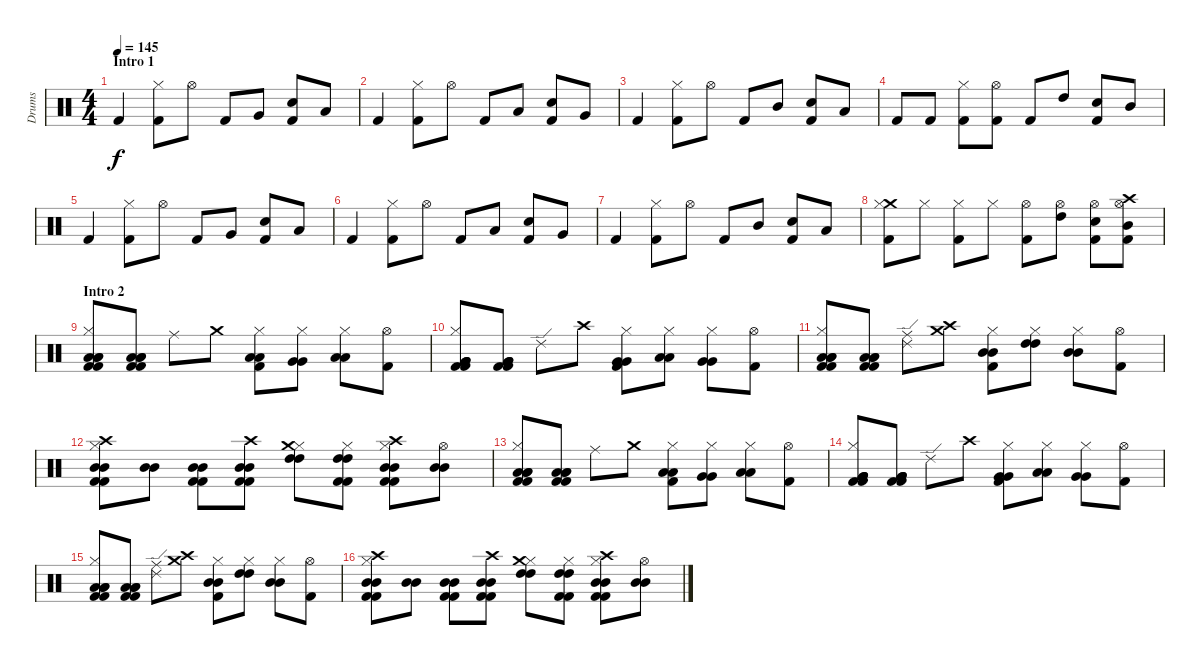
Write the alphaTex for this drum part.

\track ("Drums" "Drums") {instrument percussion}
\staff {score}
\articulation defaults
\ts (4 4)
\section ("" "Intro 1")
\tempo 145
\clef neutral
\ks c "Kick (hit) 2".4{dy f}
("Hi-Hat (closed)" "Kick (hit) 2").8 "Hi-Hat (open)".8 "Kick (hit) 2".8 "Very Low Tom (hit)".8 ("Snare (hit) 2" "Kick (hit) 2").8 "Low Floor Tom (hit)".8 |
"Kick (hit) 2".4 ("Hi-Hat (closed)" "Kick (hit) 2").8 "Hi-Hat (open)".8 "Kick (hit) 2".8 "Low Tom (hit)".8 ("Snare (hit) 2" "Kick (hit) 2").8 "Very Low Tom (hit)".8 |
"Kick (hit) 2".4 ("Hi-Hat (closed)" "Kick (hit) 2").8 "Hi-Hat (open)".8 "Kick (hit) 2".8 "Mid Tom (hit)".8 ("Snare (hit) 2" "Kick (hit) 2").8 "Low Tom (hit)".8 |
"Kick (hit) 2".8 "Kick (hit) 2".8 ("Hi-Hat (closed)" "Kick (hit) 2").8 ("Hi-Hat (open)" "Kick (hit) 2").8 "Kick (hit) 2".8 "High Tom (hit)".8 ("Snare (hit) 2" "Kick (hit) 2").8 "Mid Tom (hit)".8 |
"Kick (hit) 2".4 ("Hi-Hat (closed)" "Kick (hit) 2").8 "Hi-Hat (open)".8 "Kick (hit) 2".8 "Very Low Tom (hit)".8 ("Snare (hit) 2" "Kick (hit) 2").8 "Low Floor Tom (hit)".8 |
"Kick (hit) 2".4 ("Hi-Hat (closed)" "Kick (hit) 2").8 "Hi-Hat (open)".8 "Kick (hit) 2".8 "Low Tom (hit)".8 ("Snare (hit) 2" "Kick (hit) 2").8 "Very Low Tom (hit)".8 |
"Kick (hit) 2".4 ("Hi-Hat (closed)" "Kick (hit) 2").8 "Hi-Hat (open)".8 "Kick (hit) 2".8 "Mid Tom (hit)".8 ("Snare (hit) 2" "Kick (hit) 2").8 "Low Tom (hit)".8 |
("Crash medium (hit)" "Hi-Hat (closed)" "Kick (hit) 2").8 "Hi-Hat (closed)".8 ("Hi-Hat (closed)" "Kick (hit) 2").8 "Hi-Hat (closed)".8 ("Hi-Hat (open)" "Kick (hit) 2").8 ("Hi-Hat (open)" "High Tom (hit)").8 ("Hi-Hat (open)" "Snare (hit) 2" "Kick (hit) 2").8 ("Crash high (hit)" "Hi-Hat (open)" "Mid Tom (hit)" "Kick (hit) 2").8 |
\section ("" "Intro 2")
("Kick (hit) 2" "Hi-Hat (closed)" "Low Floor Tom (hit)" "Low Floor Tom (hit)" "Low Floor Tom (hit)" "Kick (hit) 2").8 ("Kick (hit) 2" "Low Floor Tom (hit)" "Low Floor Tom (hit)" "Low Floor Tom (hit)" "Kick (hit) 2").8 "Ride (middle)".8 "Crash medium (hit)".8 ("Hi-Hat (closed)" "Low Floor Tom (hit)" "Low Floor Tom (hit)" "Kick (hit) 2").8 ("Hi-Hat (closed)" "Very Low Tom (hit)" "Very Low Tom (hit)").8 ("Hi-Hat (closed)" "Low Floor Tom (hit)" "Low Floor Tom (hit)").8 ("Hi-Hat (open)" "Kick (hit) 2").8 |
("Kick (hit) 2" "Hi-Hat (closed)" "Very Low Tom (hit)" "Very Low Tom (hit)" "Very Low Tom (hit)" "Kick (hit) 2").8 ("Kick (hit) 2" "Very Low Tom (hit)" "Very Low Tom (hit)" "Very Low Tom (hit)" "Kick (hit) 2").8 "Ride (edge) 2".8 "Crash high (hit)".8 ("Hi-Hat (closed)" "Very Low Tom (hit)" "Very Low Tom (hit)" "Kick (hit) 2").8 ("Hi-Hat (closed)" "Low Tom (hit)" "Low Tom (hit)").8 ("Hi-Hat (closed)" "Very Low Tom (hit)" "Very Low Tom (hit)").8 ("Hi-Hat (open)" "Kick (hit) 2").8 |
("Kick (hit) 2" "Hi-Hat (closed)" "Low Tom (hit)" "Low Tom (hit)" "Low Tom (hit)" "Kick (hit) 2").8 ("Kick (hit) 2" "Low Tom (hit)" "Low Tom (hit)" "Low Tom (hit)" "Kick (hit) 2").8 ("Ride (middle)" "Ride (edge) 2").8 ("Crash medium (hit)" "Crash high (hit)").8 ("Hi-Hat (closed)" "Mid Tom (hit)" "Mid Tom (hit)" "Kick (hit) 2").8 ("Hi-Hat (closed)" "High Tom (hit)" "High Tom (hit)").8 ("Hi-Hat (closed)" "Mid Tom (hit)" "Mid Tom (hit)").8 ("Hi-Hat (open)" "Kick (hit) 2").8 |
("Mid Tom (hit)" "Hi-Hat (closed)" "Crash high (hit)" "Kick (hit) 2" "Mid Tom (hit)" "Kick (hit) 2").8 ("Mid Tom (hit)" "Mid Tom (hit)").8 ("Mid Tom (hit)" "Kick (hit) 2" "Mid Tom (hit)" "Kick (hit) 2").8 ("Mid Tom (hit)" "Crash high (hit)" "Kick (hit) 2" "Mid Tom (hit)" "Kick (hit) 2").8 ("High Tom (hit)" "Hi-Hat (closed)" "Crash medium (hit)" "High Tom (hit)").8 ("High Tom (hit)" "Hi-Hat (closed)" "Kick (hit) 2" "High Tom (hit)" "Kick (hit) 2").8 ("Mid Tom (hit)" "Hi-Hat (closed)" "Crash high (hit)" "Kick (hit) 2" "Mid Tom (hit)" "Kick (hit) 2").8 ("Mid Tom (hit)" "Hi-Hat (open)" "Mid Tom (hit)").8 |
("Kick (hit) 2" "Hi-Hat (closed)" "Low Floor Tom (hit)" "Low Floor Tom (hit)" "Low Floor Tom (hit)" "Kick (hit) 2").8 ("Kick (hit) 2" "Low Floor Tom (hit)" "Low Floor Tom (hit)" "Low Floor Tom (hit)" "Kick (hit) 2").8 "Ride (middle)".8 "Crash medium (hit)".8 ("Hi-Hat (closed)" "Low Floor Tom (hit)" "Low Floor Tom (hit)" "Kick (hit) 2").8 ("Hi-Hat (closed)" "Very Low Tom (hit)" "Very Low Tom (hit)").8 ("Hi-Hat (closed)" "Low Floor Tom (hit)" "Low Floor Tom (hit)").8 ("Hi-Hat (open)" "Kick (hit) 2").8 |
("Kick (hit) 2" "Hi-Hat (closed)" "Very Low Tom (hit)" "Very Low Tom (hit)" "Very Low Tom (hit)" "Kick (hit) 2").8 ("Kick (hit) 2" "Very Low Tom (hit)" "Very Low Tom (hit)" "Very Low Tom (hit)" "Kick (hit) 2").8 "Ride (edge) 2".8 "Crash high (hit)".8 ("Hi-Hat (closed)" "Very Low Tom (hit)" "Very Low Tom (hit)" "Kick (hit) 2").8 ("Hi-Hat (closed)" "Low Tom (hit)" "Low Tom (hit)").8 ("Hi-Hat (closed)" "Very Low Tom (hit)" "Very Low Tom (hit)").8 ("Hi-Hat (open)" "Kick (hit) 2").8 |
("Kick (hit) 2" "Hi-Hat (closed)" "Low Tom (hit)" "Low Tom (hit)" "Low Tom (hit)" "Kick (hit) 2").8 ("Kick (hit) 2" "Low Tom (hit)" "Low Tom (hit)" "Low Tom (hit)" "Kick (hit) 2").8 ("Ride (middle)" "Ride (edge) 2").8 ("Crash medium (hit)" "Crash high (hit)").8 ("Hi-Hat (closed)" "Mid Tom (hit)" "Mid Tom (hit)" "Kick (hit) 2").8 ("Hi-Hat (closed)" "High Tom (hit)" "High Tom (hit)").8 ("Hi-Hat (closed)" "Mid Tom (hit)" "Mid Tom (hit)").8 ("Hi-Hat (open)" "Kick (hit) 2").8 |
("Mid Tom (hit)" "Hi-Hat (closed)" "Crash high (hit)" "Kick (hit) 2" "Mid Tom (hit)" "Kick (hit) 2").8 ("Mid Tom (hit)" "Mid Tom (hit)").8 ("Mid Tom (hit)" "Kick (hit) 2" "Mid Tom (hit)" "Kick (hit) 2").8 ("Mid Tom (hit)" "Crash high (hit)" "Kick (hit) 2" "Mid Tom (hit)" "Kick (hit) 2").8 ("High Tom (hit)" "Hi-Hat (closed)" "Crash medium (hit)" "High Tom (hit)").8 ("High Tom (hit)" "Hi-Hat (closed)" "Kick (hit) 2" "High Tom (hit)" "Kick (hit) 2").8 ("Mid Tom (hit)" "Hi-Hat (closed)" "Crash high (hit)" "Kick (hit) 2" "Mid Tom (hit)" "Kick (hit) 2").8 ("Mid Tom (hit)" "Hi-Hat (open)" "Mid Tom (hit)").8
